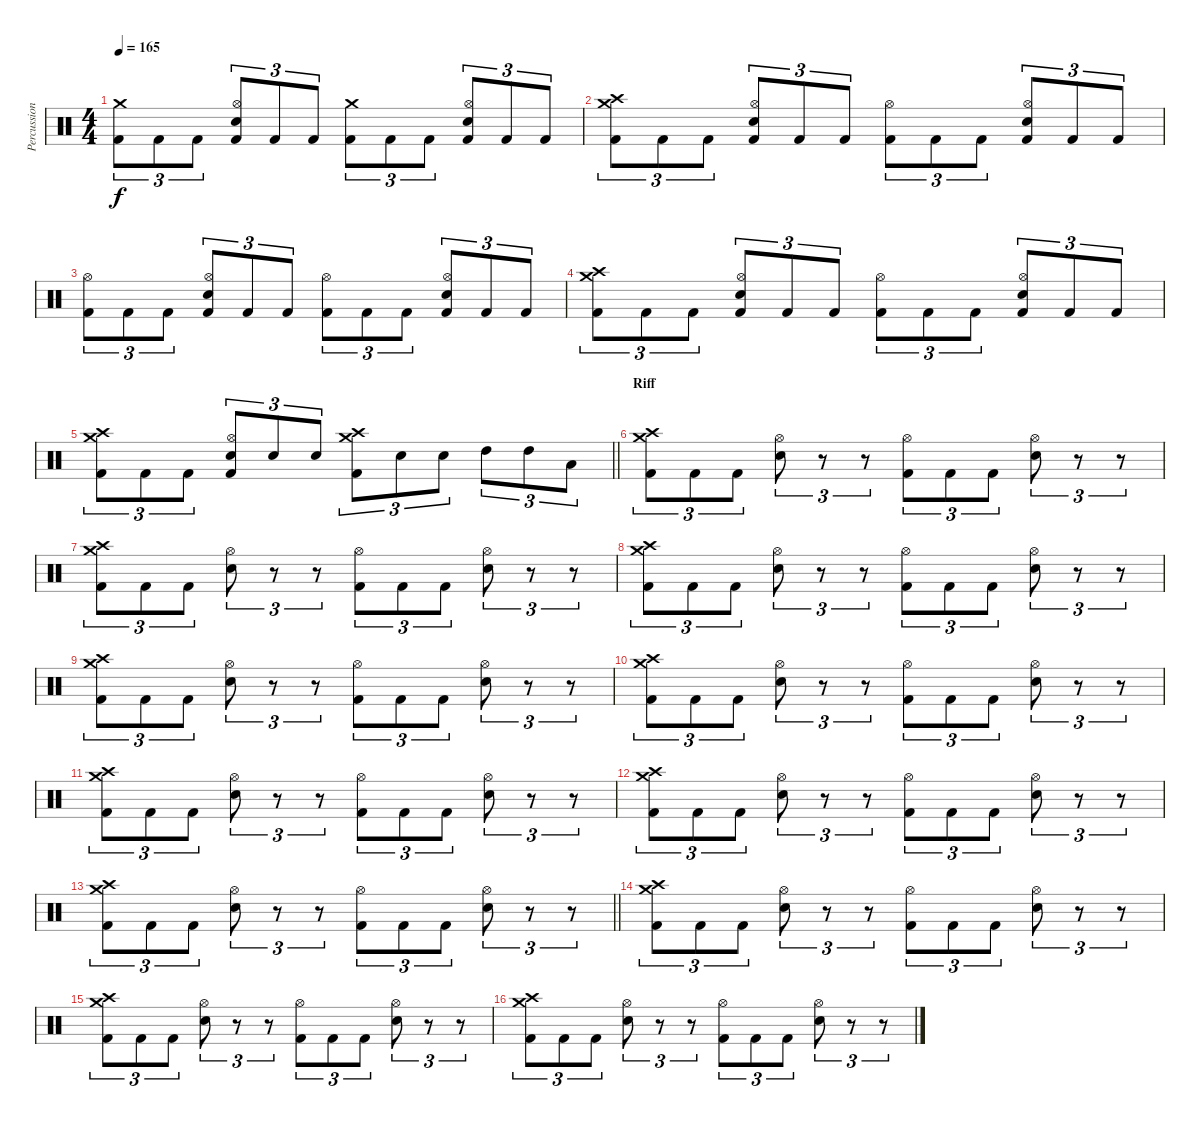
\track ("Percussioni" "Percussion") {instrument percussion}
\staff {score}
\articulation defaults
\ts (4 4)
\tempo 165
\clef neutral
\ks c
("Crash medium (hit)" "Kick (hit) 2").8{tu (3 2) dy f} "Kick (hit) 2".8{tu (3 2)} "Kick (hit) 2".8{tu (3 2)} ("Hi-Hat (open)" "Electric Snare (hit)" "Kick (hit) 2").8{tu (3 2)} "Kick (hit) 2".8{tu (3 2)} "Kick (hit) 2".8{tu (3 2)} ("Crash medium (hit)" "Kick (hit) 2").8{tu (3 2)} "Kick (hit) 2".8{tu (3 2)} "Kick (hit) 2".8{tu (3 2)} ("Hi-Hat (open)" "Electric Snare (hit)" "Kick (hit) 2").8{tu (3 2)} "Kick (hit) 2".8{tu (3 2)} "Kick (hit) 2".8{tu (3 2)} |
("Crash high (hit)" "Crash medium (hit)" "Kick (hit) 2").8{tu (3 2)} "Kick (hit) 2".8{tu (3 2)} "Kick (hit) 2".8{tu (3 2)} ("Hi-Hat (open)" "Electric Snare (hit)" "Kick (hit) 2").8{tu (3 2)} "Kick (hit) 2".8{tu (3 2)} "Kick (hit) 2".8{tu (3 2)} ("Hi-Hat (open)" "Kick (hit) 2").8{tu (3 2)} "Kick (hit) 2".8{tu (3 2)} "Kick (hit) 2".8{tu (3 2)} ("Hi-Hat (open)" "Electric Snare (hit)" "Kick (hit) 2").8{tu (3 2)} "Kick (hit) 2".8{tu (3 2)} "Kick (hit) 2".8{tu (3 2)} |
("Hi-Hat (open)" "Kick (hit) 2").8{tu (3 2)} "Kick (hit) 2".8{tu (3 2)} "Kick (hit) 2".8{tu (3 2)} ("Hi-Hat (open)" "Electric Snare (hit)" "Kick (hit) 2").8{tu (3 2)} "Kick (hit) 2".8{tu (3 2)} "Kick (hit) 2".8{tu (3 2)} ("Hi-Hat (open)" "Kick (hit) 2").8{tu (3 2)} "Kick (hit) 2".8{tu (3 2)} "Kick (hit) 2".8{tu (3 2)} ("Hi-Hat (open)" "Electric Snare (hit)" "Kick (hit) 2").8{tu (3 2)} "Kick (hit) 2".8{tu (3 2)} "Kick (hit) 2".8{tu (3 2)} |
("Crash high (hit)" "Crash medium (hit)" "Kick (hit) 2").8{tu (3 2)} "Kick (hit) 2".8{tu (3 2)} "Kick (hit) 2".8{tu (3 2)} ("Hi-Hat (open)" "Electric Snare (hit)" "Kick (hit) 2").8{tu (3 2)} "Kick (hit) 2".8{tu (3 2)} "Kick (hit) 2".8{tu (3 2)} ("Hi-Hat (open)" "Kick (hit) 2").8{tu (3 2)} "Kick (hit) 2".8{tu (3 2)} "Kick (hit) 2".8{tu (3 2)} ("Hi-Hat (open)" "Electric Snare (hit)" "Kick (hit) 2").8{tu (3 2)} "Kick (hit) 2".8{tu (3 2)} "Kick (hit) 2".8{tu (3 2)} |
\barLineRight lightlight
("Crash high (hit)" "Crash medium (hit)" "Kick (hit) 2").8{tu (3 2)} "Kick (hit) 2".8{tu (3 2)} "Kick (hit) 2".8{tu (3 2)} ("Hi-Hat (open)" "Electric Snare (hit)" "Kick (hit) 2").8{tu (3 2)} "Electric Snare (hit)".8{tu (3 2)} "Electric Snare (hit)".8{tu (3 2)} ("Crash high (hit)" "Crash medium (hit)" "Kick (hit) 2").8{tu (3 2)} "Electric Snare (hit)".8{tu (3 2)} "Electric Snare (hit)".8{tu (3 2)} "High Tom (hit)".8{tu (3 2)} "High Tom (hit)".8{tu (3 2)} "Low Tom (hit)".8{tu (3 2)} |
\section ("" "Riff")
("Crash high (hit)" "Crash medium (hit)" "Kick (hit) 2").8{tu (3 2)} "Kick (hit) 2".8{tu (3 2)} "Kick (hit) 2".8{tu (3 2)} ("Hi-Hat (open)" "Electric Snare (hit)").8{tu (3 2)} r.8{tu (3 2)} r.8{tu (3 2)} ("Hi-Hat (open)" "Kick (hit) 2").8{tu (3 2)} "Kick (hit) 2".8{tu (3 2)} "Kick (hit) 2".8{tu (3 2)} ("Hi-Hat (open)" "Electric Snare (hit)").8{tu (3 2)} r.8{tu (3 2)} r.8{tu (3 2)} |
("Crash high (hit)" "Crash medium (hit)" "Kick (hit) 2").8{tu (3 2)} "Kick (hit) 2".8{tu (3 2)} "Kick (hit) 2".8{tu (3 2)} ("Hi-Hat (open)" "Electric Snare (hit)").8{tu (3 2)} r.8{tu (3 2)} r.8{tu (3 2)} ("Hi-Hat (open)" "Kick (hit) 2").8{tu (3 2)} "Kick (hit) 2".8{tu (3 2)} "Kick (hit) 2".8{tu (3 2)} ("Hi-Hat (open)" "Electric Snare (hit)").8{tu (3 2)} r.8{tu (3 2)} r.8{tu (3 2)} |
("Crash high (hit)" "Crash medium (hit)" "Kick (hit) 2").8{tu (3 2)} "Kick (hit) 2".8{tu (3 2)} "Kick (hit) 2".8{tu (3 2)} ("Hi-Hat (open)" "Electric Snare (hit)").8{tu (3 2)} r.8{tu (3 2)} r.8{tu (3 2)} ("Hi-Hat (open)" "Kick (hit) 2").8{tu (3 2)} "Kick (hit) 2".8{tu (3 2)} "Kick (hit) 2".8{tu (3 2)} ("Hi-Hat (open)" "Electric Snare (hit)").8{tu (3 2)} r.8{tu (3 2)} r.8{tu (3 2)} |
("Crash high (hit)" "Crash medium (hit)" "Kick (hit) 2").8{tu (3 2)} "Kick (hit) 2".8{tu (3 2)} "Kick (hit) 2".8{tu (3 2)} ("Hi-Hat (open)" "Electric Snare (hit)").8{tu (3 2)} r.8{tu (3 2)} r.8{tu (3 2)} ("Hi-Hat (open)" "Kick (hit) 2").8{tu (3 2)} "Kick (hit) 2".8{tu (3 2)} "Kick (hit) 2".8{tu (3 2)} ("Hi-Hat (open)" "Electric Snare (hit)").8{tu (3 2)} r.8{tu (3 2)} r.8{tu (3 2)} |
("Crash high (hit)" "Crash medium (hit)" "Kick (hit) 2").8{tu (3 2)} "Kick (hit) 2".8{tu (3 2)} "Kick (hit) 2".8{tu (3 2)} ("Hi-Hat (open)" "Electric Snare (hit)").8{tu (3 2)} r.8{tu (3 2)} r.8{tu (3 2)} ("Hi-Hat (open)" "Kick (hit) 2").8{tu (3 2)} "Kick (hit) 2".8{tu (3 2)} "Kick (hit) 2".8{tu (3 2)} ("Hi-Hat (open)" "Electric Snare (hit)").8{tu (3 2)} r.8{tu (3 2)} r.8{tu (3 2)} |
("Crash high (hit)" "Crash medium (hit)" "Kick (hit) 2").8{tu (3 2)} "Kick (hit) 2".8{tu (3 2)} "Kick (hit) 2".8{tu (3 2)} ("Hi-Hat (open)" "Electric Snare (hit)").8{tu (3 2)} r.8{tu (3 2)} r.8{tu (3 2)} ("Hi-Hat (open)" "Kick (hit) 2").8{tu (3 2)} "Kick (hit) 2".8{tu (3 2)} "Kick (hit) 2".8{tu (3 2)} ("Hi-Hat (open)" "Electric Snare (hit)").8{tu (3 2)} r.8{tu (3 2)} r.8{tu (3 2)} |
("Crash high (hit)" "Crash medium (hit)" "Kick (hit) 2").8{tu (3 2)} "Kick (hit) 2".8{tu (3 2)} "Kick (hit) 2".8{tu (3 2)} ("Hi-Hat (open)" "Electric Snare (hit)").8{tu (3 2)} r.8{tu (3 2)} r.8{tu (3 2)} ("Hi-Hat (open)" "Kick (hit) 2").8{tu (3 2)} "Kick (hit) 2".8{tu (3 2)} "Kick (hit) 2".8{tu (3 2)} ("Hi-Hat (open)" "Electric Snare (hit)").8{tu (3 2)} r.8{tu (3 2)} r.8{tu (3 2)} |
\barLineRight lightlight
("Crash high (hit)" "Crash medium (hit)" "Kick (hit) 2").8{tu (3 2)} "Kick (hit) 2".8{tu (3 2)} "Kick (hit) 2".8{tu (3 2)} ("Hi-Hat (open)" "Electric Snare (hit)").8{tu (3 2)} r.8{tu (3 2)} r.8{tu (3 2)} ("Hi-Hat (open)" "Kick (hit) 2").8{tu (3 2)} "Kick (hit) 2".8{tu (3 2)} "Kick (hit) 2".8{tu (3 2)} ("Hi-Hat (open)" "Electric Snare (hit)").8{tu (3 2)} r.8{tu (3 2)} r.8{tu (3 2)} |
("Crash high (hit)" "Crash medium (hit)" "Kick (hit) 2").8{tu (3 2)} "Kick (hit) 2".8{tu (3 2)} "Kick (hit) 2".8{tu (3 2)} ("Hi-Hat (open)" "Electric Snare (hit)").8{tu (3 2)} r.8{tu (3 2)} r.8{tu (3 2)} ("Hi-Hat (open)" "Kick (hit) 2").8{tu (3 2)} "Kick (hit) 2".8{tu (3 2)} "Kick (hit) 2".8{tu (3 2)} ("Hi-Hat (open)" "Electric Snare (hit)").8{tu (3 2)} r.8{tu (3 2)} r.8{tu (3 2)} |
("Crash high (hit)" "Crash medium (hit)" "Kick (hit) 2").8{tu (3 2)} "Kick (hit) 2".8{tu (3 2)} "Kick (hit) 2".8{tu (3 2)} ("Hi-Hat (open)" "Electric Snare (hit)").8{tu (3 2)} r.8{tu (3 2)} r.8{tu (3 2)} ("Hi-Hat (open)" "Kick (hit) 2").8{tu (3 2)} "Kick (hit) 2".8{tu (3 2)} "Kick (hit) 2".8{tu (3 2)} ("Hi-Hat (open)" "Electric Snare (hit)").8{tu (3 2)} r.8{tu (3 2)} r.8{tu (3 2)} |
("Crash high (hit)" "Crash medium (hit)" "Kick (hit) 2").8{tu (3 2)} "Kick (hit) 2".8{tu (3 2)} "Kick (hit) 2".8{tu (3 2)} ("Hi-Hat (open)" "Electric Snare (hit)").8{tu (3 2)} r.8{tu (3 2)} r.8{tu (3 2)} ("Hi-Hat (open)" "Kick (hit) 2").8{tu (3 2)} "Kick (hit) 2".8{tu (3 2)} "Kick (hit) 2".8{tu (3 2)} ("Hi-Hat (open)" "Electric Snare (hit)").8{tu (3 2)} r.8{tu (3 2)} r.8{tu (3 2)}
